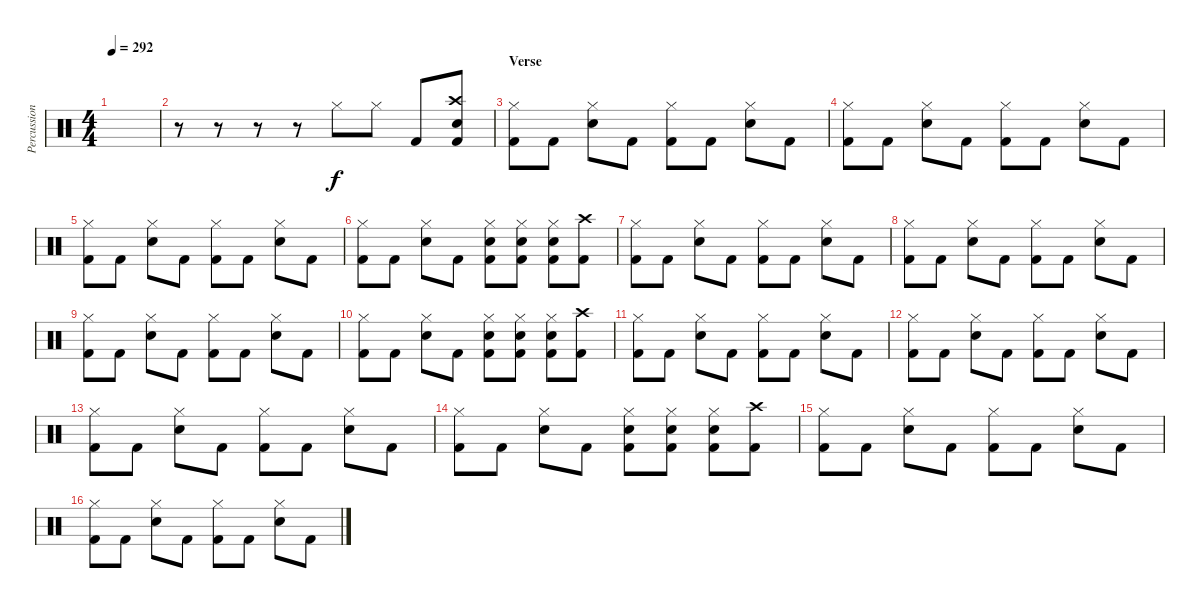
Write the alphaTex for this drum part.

\track ("Percussion" "Percussion") {instrument percussion}
\staff {score}
\articulation defaults
\ts (4 4)
\tempo 292
\clef neutral
\ks c
|
r.8 r.8 r.8 r.8 "Hi-Hat (closed)".8 "Hi-Hat (closed)".8 "Kick (hit) 2".8 ("Crash high (hit)" "Electric Snare (hit)" "Kick (hit) 2").8 |
\section ("" "Verse")
("Hi-Hat (closed)" "Kick (hit) 2").8 "Kick (hit) 2".8 ("Hi-Hat (closed)" "Electric Snare (hit)").8 "Kick (hit) 2".8 ("Hi-Hat (closed)" "Kick (hit) 2").8 "Kick (hit) 2".8 ("Hi-Hat (closed)" "Electric Snare (hit)").8 "Kick (hit) 2".8 |
("Hi-Hat (closed)" "Kick (hit) 2").8 "Kick (hit) 2".8 ("Hi-Hat (closed)" "Electric Snare (hit)").8 "Kick (hit) 2".8 ("Hi-Hat (closed)" "Kick (hit) 2").8 "Kick (hit) 2".8 ("Hi-Hat (closed)" "Electric Snare (hit)").8 "Kick (hit) 2".8 |
("Hi-Hat (closed)" "Kick (hit) 2").8 "Kick (hit) 2".8 ("Hi-Hat (closed)" "Electric Snare (hit)").8 "Kick (hit) 2".8 ("Hi-Hat (closed)" "Kick (hit) 2").8 "Kick (hit) 2".8 ("Hi-Hat (closed)" "Electric Snare (hit)").8 "Kick (hit) 2".8 |
("Hi-Hat (closed)" "Kick (hit) 2").8 "Kick (hit) 2".8 ("Hi-Hat (closed)" "Electric Snare (hit)").8 "Kick (hit) 2".8 ("Hi-Hat (closed)" "Electric Snare (hit)" "Kick (hit) 2").8 ("Hi-Hat (closed)" "Electric Snare (hit)" "Kick (hit) 2").8 ("Hi-Hat (closed)" "Electric Snare (hit)" "Kick (hit) 2").8 ("Crash high (hit)" "Kick (hit) 2").8 |
("Hi-Hat (closed)" "Kick (hit) 2").8 "Kick (hit) 2".8 ("Hi-Hat (closed)" "Electric Snare (hit)").8 "Kick (hit) 2".8 ("Hi-Hat (closed)" "Kick (hit) 2").8 "Kick (hit) 2".8 ("Hi-Hat (closed)" "Electric Snare (hit)").8 "Kick (hit) 2".8 |
("Hi-Hat (closed)" "Kick (hit) 2").8 "Kick (hit) 2".8 ("Hi-Hat (closed)" "Electric Snare (hit)").8 "Kick (hit) 2".8 ("Hi-Hat (closed)" "Kick (hit) 2").8 "Kick (hit) 2".8 ("Hi-Hat (closed)" "Electric Snare (hit)").8 "Kick (hit) 2".8 |
("Hi-Hat (closed)" "Kick (hit) 2").8 "Kick (hit) 2".8 ("Hi-Hat (closed)" "Electric Snare (hit)").8 "Kick (hit) 2".8 ("Hi-Hat (closed)" "Kick (hit) 2").8 "Kick (hit) 2".8 ("Hi-Hat (closed)" "Electric Snare (hit)").8 "Kick (hit) 2".8 |
("Hi-Hat (closed)" "Kick (hit) 2").8 "Kick (hit) 2".8 ("Hi-Hat (closed)" "Electric Snare (hit)").8 "Kick (hit) 2".8 ("Hi-Hat (closed)" "Electric Snare (hit)" "Kick (hit) 2").8 ("Hi-Hat (closed)" "Electric Snare (hit)" "Kick (hit) 2").8 ("Hi-Hat (closed)" "Electric Snare (hit)" "Kick (hit) 2").8 ("Crash high (hit)" "Kick (hit) 2").8 |
("Hi-Hat (closed)" "Kick (hit) 2").8 "Kick (hit) 2".8 ("Hi-Hat (closed)" "Electric Snare (hit)").8 "Kick (hit) 2".8 ("Hi-Hat (closed)" "Kick (hit) 2").8 "Kick (hit) 2".8 ("Hi-Hat (closed)" "Electric Snare (hit)").8 "Kick (hit) 2".8 |
("Hi-Hat (closed)" "Kick (hit) 2").8 "Kick (hit) 2".8 ("Hi-Hat (closed)" "Electric Snare (hit)").8 "Kick (hit) 2".8 ("Hi-Hat (closed)" "Kick (hit) 2").8 "Kick (hit) 2".8 ("Hi-Hat (closed)" "Electric Snare (hit)").8 "Kick (hit) 2".8 |
("Hi-Hat (closed)" "Kick (hit) 2").8 "Kick (hit) 2".8 ("Hi-Hat (closed)" "Electric Snare (hit)").8 "Kick (hit) 2".8 ("Hi-Hat (closed)" "Kick (hit) 2").8 "Kick (hit) 2".8 ("Hi-Hat (closed)" "Electric Snare (hit)").8 "Kick (hit) 2".8 |
("Hi-Hat (closed)" "Kick (hit) 2").8 "Kick (hit) 2".8 ("Hi-Hat (closed)" "Electric Snare (hit)").8 "Kick (hit) 2".8 ("Hi-Hat (closed)" "Electric Snare (hit)" "Kick (hit) 2").8 ("Hi-Hat (closed)" "Electric Snare (hit)" "Kick (hit) 2").8 ("Hi-Hat (closed)" "Electric Snare (hit)" "Kick (hit) 2").8 ("Crash high (hit)" "Kick (hit) 2").8 |
("Hi-Hat (closed)" "Kick (hit) 2").8 "Kick (hit) 2".8 ("Hi-Hat (closed)" "Electric Snare (hit)").8 "Kick (hit) 2".8 ("Hi-Hat (closed)" "Kick (hit) 2").8 "Kick (hit) 2".8 ("Hi-Hat (closed)" "Electric Snare (hit)").8 "Kick (hit) 2".8 |
("Hi-Hat (closed)" "Kick (hit) 2").8 "Kick (hit) 2".8 ("Hi-Hat (closed)" "Electric Snare (hit)").8 "Kick (hit) 2".8 ("Hi-Hat (closed)" "Kick (hit) 2").8 "Kick (hit) 2".8 ("Hi-Hat (closed)" "Electric Snare (hit)").8 "Kick (hit) 2".8
